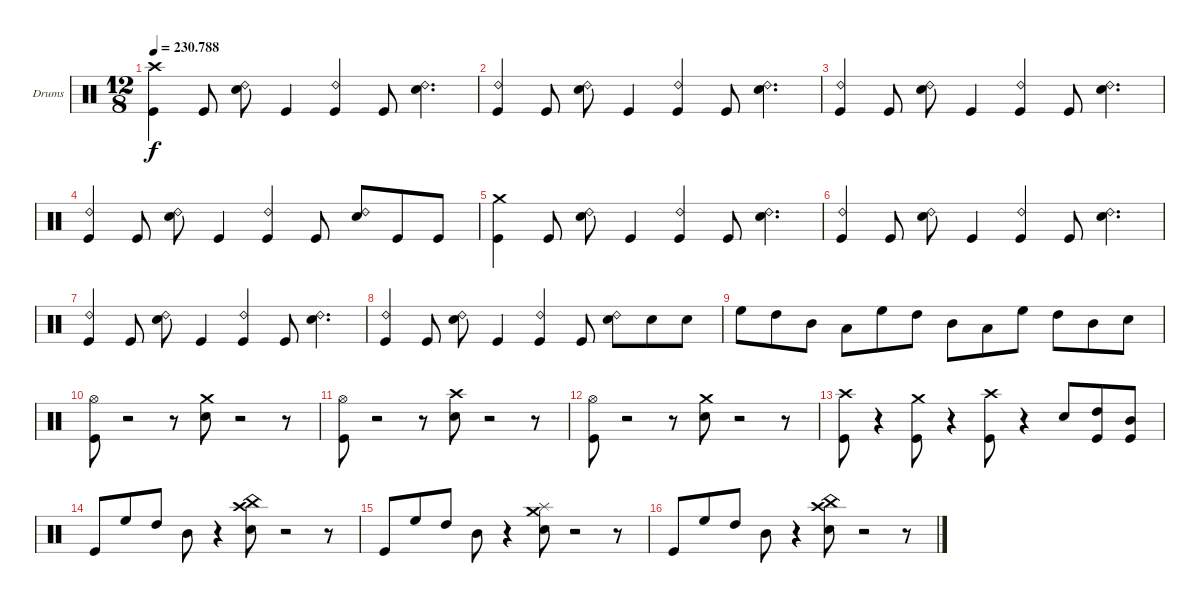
\bracketExtendMode groupsimilarinstruments
\firstSystemTrackNameOrientation horizontal
\otherSystemsTrackNameOrientation horizontal
\track ("Ударные" "Drums") {instrument percussion}
\staff {score}
\articulation defaults
\ts (12 8)
\tempo
230.788
\accidentals auto
\clef neutral
\ottava regular
\simile none
\ks c
("Crash high (hit)" "Kick (hit)").4{dy f} "Kick (hit)".8 ("Ride (bell) 2" "Snare (hit) 2").8 "Kick (hit)".4 ("Ride (bell) 2" "Kick (hit)").4 "Kick (hit)".8 ("Ride (bell) 2" "Snare (hit) 2").4{d} |
("Ride (bell) 2" "Kick (hit)").4 "Kick (hit)".8 ("Ride (bell) 2" "Snare (hit) 2").8 "Kick (hit)".4 ("Ride (bell) 2" "Kick (hit)").4 "Kick (hit)".8 ("Ride (bell) 2" "Snare (hit) 2").4{d} |
("Kick (hit)" "Ride (bell) 2").4 "Kick (hit)".8 ("Ride (bell) 2" "Snare (hit) 2").8 "Kick (hit)".4 ("Kick (hit)" "Ride (bell) 2").4 "Kick (hit)".8 ("Ride (bell) 2" "Snare (hit) 2").4{d} |
("Kick (hit)" "Ride (bell) 2").4 "Kick (hit)".8 ("Ride (bell) 2" "Snare (hit) 2").8 "Kick (hit)".4 ("Ride (bell) 2" "Kick (hit)").4 "Kick (hit)".8 ("Ride (bell) 2" "Snare (hit) 2").8 "Kick (hit)".8 "Kick (hit)".8 |
("Crash medium (hit)" "Kick (hit)").4 "Kick (hit)".8 ("Ride (bell) 2" "Snare (hit) 2").8 "Kick (hit)".4 ("Ride (bell) 2" "Kick (hit)").4 "Kick (hit)".8 ("Ride (bell) 2" "Snare (hit) 2").4{d} |
("Ride (bell) 2" "Kick (hit)").4 "Kick (hit)".8 ("Ride (bell) 2" "Snare (hit) 2").8 "Kick (hit)".4 ("Ride (bell) 2" "Kick (hit)").4 "Kick (hit)".8 ("Ride (bell) 2" "Snare (hit) 2").4{d} |
("Kick (hit)" "Ride (bell) 2").4 "Kick (hit)".8 ("Ride (bell) 2" "Snare (hit) 2").8 "Kick (hit)".4 ("Kick (hit)" "Ride (bell) 2").4 "Kick (hit)".8 ("Ride (bell) 2" "Snare (hit) 2").4{d} |
("Kick (hit)" "Ride (bell) 2").4 "Kick (hit)".8 ("Ride (bell) 2" "Snare (hit) 2").8 "Kick (hit)".4 ("Ride (bell) 2" "Kick (hit)").4 "Kick (hit)".8 ("Ride (bell) 2" "Snare (hit) 2").8 "Snare (hit) 2".8 "Snare (hit) 2".8 |
"High Floor Tom (hit)".8 "High Tom (hit)".8 "Mid Tom (hit)".8 "Low Tom (hit)".8 "High Floor Tom (hit)".8 "High Tom (hit)".8 "Mid Tom (hit)".8 "Low Tom (hit)".8 "High Floor Tom (hit)".8 "High Tom (hit)".8 "Mid Tom (hit)".8 "Snare (hit) 2".8 |
("Hi-Hat (open)" "Kick (hit)").8 r.2 r.8 ("Crash medium (hit)" "Snare (hit) 2").8 r.2 r.8 |
("Hi-Hat (open)" "Kick (hit)").8 r.2 r.8 ("Crash high (hit)" "Snare (hit) 2").8 r.2 r.8 |
("Hi-Hat (open)" "Kick (hit)").8 r.2 r.8 ("Crash medium (hit)" "Snare (hit) 2").8 r.2 r.8 |
("Crash high (hit)" "Kick (hit)").8 r.4 ("Crash medium (hit)" "Kick (hit)").8 r.4 ("Crash high (hit)" "Kick (hit)").8 r.4 "Snare (hit) 2".8 ("Kick (hit)" "High Tom (hit)").8 ("Kick (hit)" "Mid Tom (hit)").8 |
"Kick (hit)".8 "High Floor Tom (hit)".8 "High Tom (hit)".8 "Mid Tom (hit)".8 r.4 ("China (hit)" "Crash high (hit)" "Snare (hit) 2").8 r.2 r.8 |
"Kick (hit)".8 "High Floor Tom (hit)".8 "High Tom (hit)".8 "Mid Tom (hit)".8 r.4 ("Splash (hit)" "Crash medium (hit)" "Snare (hit) 2").8 r.2 r.8 |
"Kick (hit)".8 "High Floor Tom (hit)".8 "High Tom (hit)".8 "Mid Tom (hit)".8 r.4 ("China (hit)" "Crash high (hit)" "Snare (hit) 2").8 r.2 r.8
